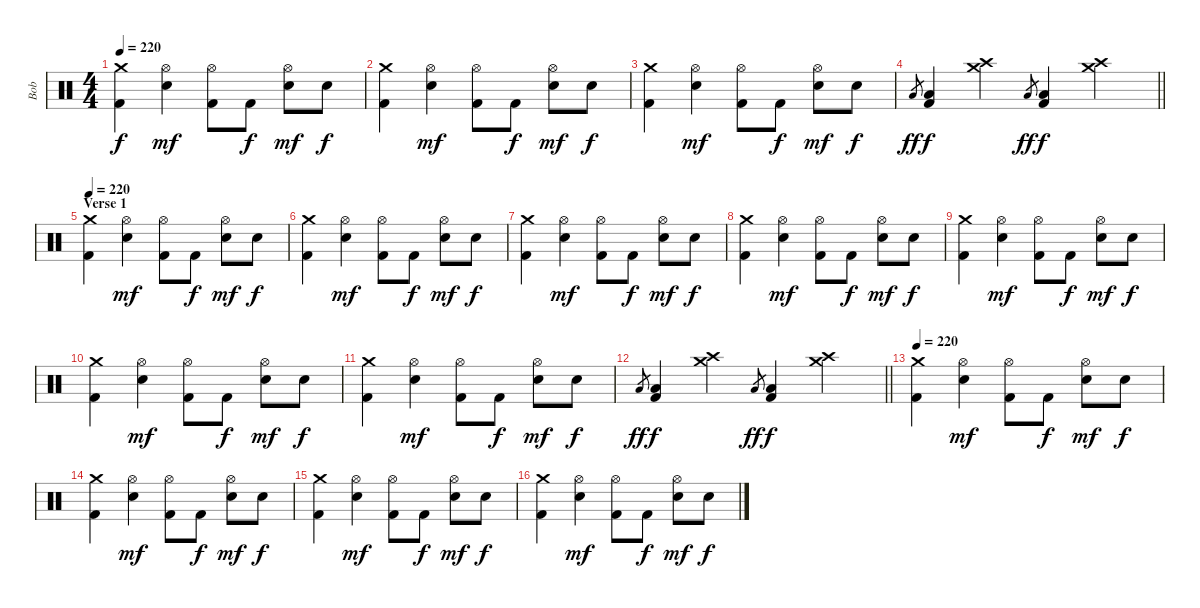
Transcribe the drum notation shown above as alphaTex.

\track ("Bob" "Bob") {instrument percussion}
\staff {score}
\articulation defaults
\ts (4 4)
\tempo 220
\clef neutral
\ks c
("Crash medium (hit)" "Kick (hit) 2").4{dy f} ("Hi-Hat (open)" "Electric Snare (hit)").4{dy mf} ("Hi-Hat (open)" "Kick (hit) 2").8 "Kick (hit) 2".8{dy f} ("Hi-Hat (open)" "Electric Snare (hit)").8{dy mf} "Electric Snare (hit)".8{dy f} |
("Crash medium (hit)" "Kick (hit) 2").4 ("Hi-Hat (open)" "Electric Snare (hit)").4{dy mf} ("Hi-Hat (open)" "Kick (hit) 2").8 "Kick (hit) 2".8{dy f} ("Hi-Hat (open)" "Electric Snare (hit)").8{dy mf} "Electric Snare (hit)".8{dy f} |
("Crash medium (hit)" "Kick (hit) 2").4 ("Hi-Hat (open)" "Electric Snare (hit)").4{dy mf} ("Hi-Hat (open)" "Kick (hit) 2").8 "Kick (hit) 2".8{dy f} ("Hi-Hat (open)" "Electric Snare (hit)").8{dy mf} "Electric Snare (hit)".8{dy f} |
\barLineRight lightlight "Low Floor Tom (hit)".8{gr dy ff}
("Low Floor Tom (hit)" "Kick (hit) 2").4{dy f} ("Crash medium (hit)" "Crash high (hit)").4 "Low Floor Tom (hit)".8{gr dy ff} ("Low Floor Tom (hit)" "Kick (hit) 2").4{dy f} ("Crash medium (hit)" "Crash high (hit)").4 |
\section ("" "Verse 1")
\tempo 220
("Crash medium (hit)" "Kick (hit) 2").4 ("Hi-Hat (open)" "Electric Snare (hit)").4{dy mf} ("Hi-Hat (open)" "Kick (hit) 2").8 "Kick (hit) 2".8{dy f} ("Hi-Hat (open)" "Electric Snare (hit)").8{dy mf} "Electric Snare (hit)".8{dy f} |
("Crash medium (hit)" "Kick (hit) 2").4 ("Hi-Hat (open)" "Electric Snare (hit)").4{dy mf} ("Hi-Hat (open)" "Kick (hit) 2").8 "Kick (hit) 2".8{dy f} ("Hi-Hat (open)" "Electric Snare (hit)").8{dy mf} "Electric Snare (hit)".8{dy f} |
("Crash medium (hit)" "Kick (hit) 2").4 ("Hi-Hat (open)" "Electric Snare (hit)").4{dy mf} ("Hi-Hat (open)" "Kick (hit) 2").8 "Kick (hit) 2".8{dy f} ("Hi-Hat (open)" "Electric Snare (hit)").8{dy mf} "Electric Snare (hit)".8{dy f} |
("Crash medium (hit)" "Kick (hit) 2").4 ("Hi-Hat (open)" "Electric Snare (hit)").4{dy mf} ("Hi-Hat (open)" "Kick (hit) 2").8 "Kick (hit) 2".8{dy f} ("Hi-Hat (open)" "Electric Snare (hit)").8{dy mf} "Electric Snare (hit)".8{dy f} |
("Crash medium (hit)" "Kick (hit) 2").4 ("Hi-Hat (open)" "Electric Snare (hit)").4{dy mf} ("Hi-Hat (open)" "Kick (hit) 2").8 "Kick (hit) 2".8{dy f} ("Hi-Hat (open)" "Electric Snare (hit)").8{dy mf} "Electric Snare (hit)".8{dy f} |
("Crash medium (hit)" "Kick (hit) 2").4 ("Hi-Hat (open)" "Electric Snare (hit)").4{dy mf} ("Hi-Hat (open)" "Kick (hit) 2").8 "Kick (hit) 2".8{dy f} ("Hi-Hat (open)" "Electric Snare (hit)").8{dy mf} "Electric Snare (hit)".8{dy f} |
("Crash medium (hit)" "Kick (hit) 2").4 ("Hi-Hat (open)" "Electric Snare (hit)").4{dy mf} ("Hi-Hat (open)" "Kick (hit) 2").8 "Kick (hit) 2".8{dy f} ("Hi-Hat (open)" "Electric Snare (hit)").8{dy mf} "Electric Snare (hit)".8{dy f} |
\barLineRight lightlight "Low Floor Tom (hit)".8{gr dy ff}
("Low Floor Tom (hit)" "Kick (hit) 2").4{dy f} ("Crash medium (hit)" "Crash high (hit)").4 "Low Floor Tom (hit)".8{gr dy ff} ("Low Floor Tom (hit)" "Kick (hit) 2").4{dy f} ("Crash medium (hit)" "Crash high (hit)").4 |
\tempo 220
("Crash medium (hit)" "Kick (hit) 2").4 ("Hi-Hat (open)" "Electric Snare (hit)").4{dy mf} ("Hi-Hat (open)" "Kick (hit) 2").8 "Kick (hit) 2".8{dy f} ("Hi-Hat (open)" "Electric Snare (hit)").8{dy mf} "Electric Snare (hit)".8{dy f} |
("Crash medium (hit)" "Kick (hit) 2").4 ("Hi-Hat (open)" "Electric Snare (hit)").4{dy mf} ("Hi-Hat (open)" "Kick (hit) 2").8 "Kick (hit) 2".8{dy f} ("Hi-Hat (open)" "Electric Snare (hit)").8{dy mf} "Electric Snare (hit)".8{dy f} |
("Crash medium (hit)" "Kick (hit) 2").4 ("Hi-Hat (open)" "Electric Snare (hit)").4{dy mf} ("Hi-Hat (open)" "Kick (hit) 2").8 "Kick (hit) 2".8{dy f} ("Hi-Hat (open)" "Electric Snare (hit)").8{dy mf} "Electric Snare (hit)".8{dy f} |
("Crash medium (hit)" "Kick (hit) 2").4 ("Hi-Hat (open)" "Electric Snare (hit)").4{dy mf} ("Hi-Hat (open)" "Kick (hit) 2").8 "Kick (hit) 2".8{dy f} ("Hi-Hat (open)" "Electric Snare (hit)").8{dy mf} "Electric Snare (hit)".8{dy f}
